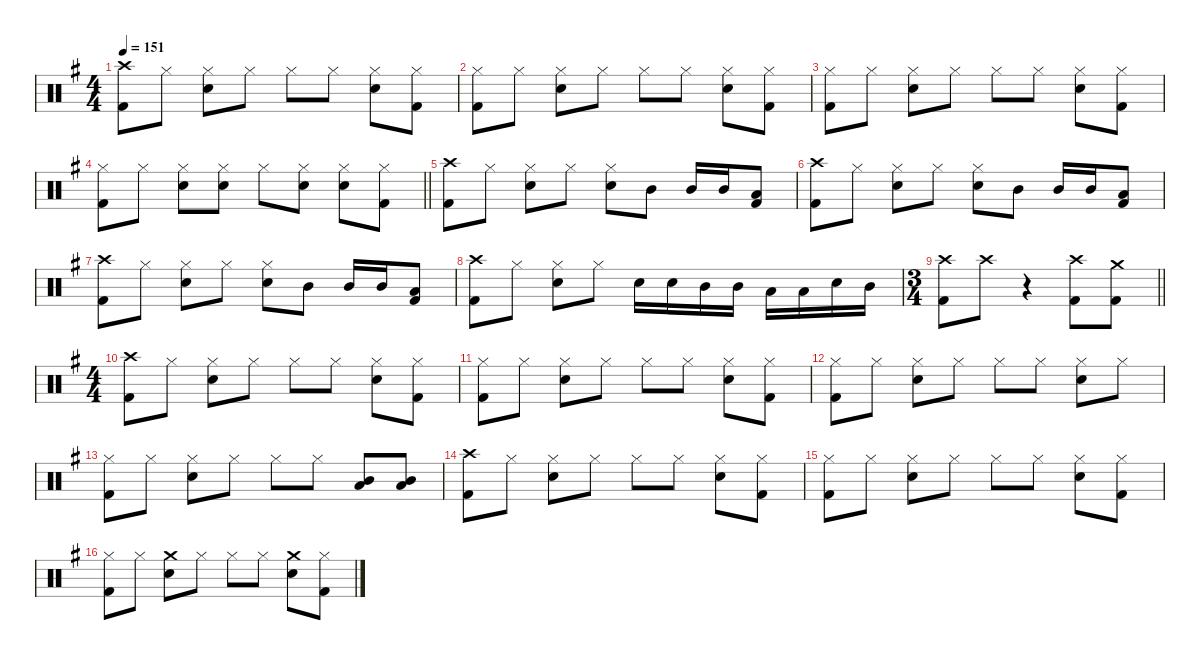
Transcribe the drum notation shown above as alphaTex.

\defaultSystemsLayout 4
\hideDynamics
\bracketExtendMode nobrackets
\singleTrackTrackNamePolicy hidden
\multiTrackTrackNamePolicy hidden
\otherSystemsTrackNameOrientation horizontal
\track ("Lars Ulrich" "drm.") {instrument percussion}
\staff {score}
\articulation defaults
\ts (4 4)
\tempo 151
\clef neutral
\ks eminor
("Crash high (hit)"{acc forcenatural} "Kick (hit) 2"{acc forcenatural}).8{dy f beam Down} "Hi-Hat (closed)"{acc forcenatural}.8{beam Down} ("Hi-Hat (closed)"{acc forcenatural} "Snare (hit) 2"{acc forcenatural}).8{beam Down} "Hi-Hat (closed)"{acc forcenatural}.8{beam Down} "Hi-Hat (closed)"{acc forcenatural}.8{beam Down} "Hi-Hat (closed)"{acc forcenatural}.8{beam Down} ("Hi-Hat (closed)"{acc forcenatural} "Snare (hit) 2"{acc forcenatural}).8{beam Down} ("Hi-Hat (closed)"{acc forcenatural} "Kick (hit) 2"{acc forcenatural}).8{beam Down} |
("Hi-Hat (closed)"{acc forcenatural} "Kick (hit) 2"{acc forcenatural}).8{beam Down} "Hi-Hat (closed)"{acc forcenatural}.8{beam Down} ("Hi-Hat (closed)"{acc forcenatural} "Snare (hit) 2"{acc forcenatural}).8{beam Down} "Hi-Hat (closed)"{acc forcenatural}.8{beam Down} "Hi-Hat (closed)"{acc forcenatural}.8{beam Down} "Hi-Hat (closed)"{acc forcenatural}.8{beam Down} ("Hi-Hat (closed)"{acc forcenatural} "Snare (hit) 2"{acc forcenatural}).8{beam Down} ("Hi-Hat (closed)"{acc forcenatural} "Kick (hit) 2"{acc forcenatural}).8{beam Down} |
("Hi-Hat (closed)"{acc forcenatural} "Kick (hit) 2"{acc forcenatural}).8{beam Down} "Hi-Hat (closed)"{acc forcenatural}.8{beam Down} ("Hi-Hat (closed)"{acc forcenatural} "Snare (hit) 2"{acc forcenatural}).8{beam Down} "Hi-Hat (closed)"{acc forcenatural}.8{beam Down} "Hi-Hat (closed)"{acc forcenatural}.8{beam Down} "Hi-Hat (closed)"{acc forcenatural}.8{beam Down} ("Hi-Hat (closed)"{acc forcenatural} "Snare (hit) 2"{acc forcenatural}).8{beam Down} ("Hi-Hat (closed)"{acc forcenatural} "Kick (hit) 2"{acc forcenatural}).8{beam Down} |
\barLineRight lightlight
("Hi-Hat (closed)"{acc forcenatural} "Kick (hit) 2"{acc forcenatural}).8{beam Down} "Hi-Hat (closed)"{acc forcenatural}.8{beam Down} ("Hi-Hat (closed)"{acc forcenatural} "Snare (hit) 2"{acc forcenatural}).8{beam Down} ("Hi-Hat (closed)"{acc forcenatural} "Snare (hit) 2"{acc forcenatural}).8{beam Down} "Hi-Hat (closed)"{acc forcenatural}.8{beam Down} ("Hi-Hat (closed)"{acc forcenatural} "Snare (hit) 2"{acc forcenatural}).8{beam Down} ("Hi-Hat (closed)"{acc forcenatural} "Snare (hit) 2"{acc forcenatural}).8{beam Down} ("Hi-Hat (closed)"{acc forcenatural} "Kick (hit) 2"{acc forcenatural}).8{beam Down} |
("Crash high (hit)"{acc forcenatural} "Kick (hit) 2"{acc forcenatural}).8{beam Down} "Hi-Hat (closed)"{acc forcenatural}.8{beam Down} ("Hi-Hat (closed)"{acc forcenatural} "Snare (hit) 2"{acc forcenatural}).8{beam Down} "Hi-Hat (closed)"{acc forcenatural}.8{beam Down} ("Hi-Hat (closed)"{acc forcenatural} "Snare (hit) 2"{acc forcenatural}).8{beam Down} "Mid Tom (hit)"{acc forcenatural}.8{beam Down} "Mid Tom (hit)"{acc forcenatural}.16{beam Up} "Mid Tom (hit)"{acc forcenatural}.16{beam Up} ("Low Tom (hit)"{acc forcenatural} "Kick (hit) 2"{acc forcenatural}).8{beam Up} |
("Crash high (hit)"{acc forcenatural} "Kick (hit) 2"{acc forcenatural}).8{beam Down} "Hi-Hat (closed)"{acc forcenatural}.8{beam Down} ("Hi-Hat (closed)"{acc forcenatural} "Snare (hit) 2"{acc forcenatural}).8{beam Down} "Hi-Hat (closed)"{acc forcenatural}.8{beam Down} ("Hi-Hat (closed)"{acc forcenatural} "Snare (hit) 2"{acc forcenatural}).8{beam Down} "Mid Tom (hit)"{acc forcenatural}.8{beam Down} "Mid Tom (hit)"{acc forcenatural}.16{beam Up} "Mid Tom (hit)"{acc forcenatural}.16{beam Up} ("Low Tom (hit)"{acc forcenatural} "Kick (hit) 2"{acc forcenatural}).8{beam Up} |
("Crash high (hit)"{acc forcenatural} "Kick (hit) 2"{acc forcenatural}).8{beam Down} "Hi-Hat (closed)"{acc forcenatural}.8{beam Down} ("Hi-Hat (closed)"{acc forcenatural} "Snare (hit) 2"{acc forcenatural}).8{beam Down} "Hi-Hat (closed)"{acc forcenatural}.8{beam Down} ("Hi-Hat (closed)"{acc forcenatural} "Snare (hit) 2"{acc forcenatural}).8{beam Down} "Mid Tom (hit)"{acc forcenatural}.8{beam Down} "Mid Tom (hit)"{acc forcenatural}.16{beam Up} "Mid Tom (hit)"{acc forcenatural}.16{beam Up} ("Low Tom (hit)"{acc forcenatural} "Kick (hit) 2"{acc forcenatural}).8{beam Up} |
("Crash high (hit)"{acc forcenatural} "Kick (hit) 2"{acc forcenatural}).8{beam Down} "Hi-Hat (closed)"{acc forcenatural}.8{beam Down} ("Hi-Hat (closed)"{acc forcenatural} "Snare (hit) 2"{acc forcenatural}).8{beam Down} "Hi-Hat (closed)"{acc forcenatural}.8{beam Down} "Snare (hit) 2"{acc forcenatural}.16{beam Down} "Snare (hit) 2"{acc forcenatural}.16{beam Down} "Mid Tom (hit)"{acc forcenatural}.16{beam Down} "Mid Tom (hit)"{acc forcenatural}.16{beam Down} "Low Tom (hit)"{acc forcenatural}.16{beam Down} "Low Tom (hit)"{acc forcenatural}.16{beam Down} "Snare (hit) 2"{acc forcenatural}.16{beam Down} "Mid Tom (hit)"{acc forcenatural}.16{beam Down} |
\ts (3 4)
\beaming (8 2 2 2)
\barLineRight lightlight
("Crash high (hit)"{acc forcenatural} "Kick (hit) 2"{acc forcenatural}).8{beam Down} "Crash high (hit)"{acc forcenatural}.8{beam Down} r.4{beam Down} ("Crash high (hit)"{acc forcenatural} "Kick (hit) 2"{acc forcenatural}).8{beam Down} ("Crash medium (hit)"{acc forcenatural} "Kick (hit) 2"{acc forcenatural}).8{beam Down} |
\ts (4 4)
\beaming (8 2 2 2 2)
("Crash high (hit)"{acc forcenatural} "Kick (hit) 2"{acc forcenatural}).8{beam Down} "Hi-Hat (closed)"{acc forcenatural}.8{beam Down} ("Hi-Hat (closed)"{acc forcenatural} "Snare (hit) 2"{acc forcenatural}).8{beam Down} "Hi-Hat (closed)"{acc forcenatural}.8{beam Down} "Hi-Hat (closed)"{acc forcenatural}.8{beam Down} "Hi-Hat (closed)"{acc forcenatural}.8{beam Down} ("Hi-Hat (closed)"{acc forcenatural} "Snare (hit) 2"{acc forcenatural}).8{beam Down} ("Hi-Hat (closed)"{acc forcenatural} "Kick (hit) 2"{acc forcenatural}).8{beam Down} |
("Hi-Hat (closed)"{acc forcenatural} "Kick (hit) 2"{acc forcenatural}).8{beam Down} "Hi-Hat (closed)"{acc forcenatural}.8{beam Down} ("Hi-Hat (closed)"{acc forcenatural} "Snare (hit) 2"{acc forcenatural}).8{beam Down} "Hi-Hat (closed)"{acc forcenatural}.8{beam Down} "Hi-Hat (closed)"{acc forcenatural}.8{beam Down} "Hi-Hat (closed)"{acc forcenatural}.8{beam Down} ("Hi-Hat (closed)"{acc forcenatural} "Snare (hit) 2"{acc forcenatural}).8{beam Down} ("Hi-Hat (closed)"{acc forcenatural} "Kick (hit) 2"{acc forcenatural}).8{beam Down} |
("Hi-Hat (closed)"{acc forcenatural} "Kick (hit) 2"{acc forcenatural}).8{beam Down} "Hi-Hat (closed)"{acc forcenatural}.8{beam Down} ("Hi-Hat (closed)"{acc forcenatural} "Snare (hit) 2"{acc forcenatural}).8{beam Down} "Hi-Hat (closed)"{acc forcenatural}.8{beam Down} "Hi-Hat (closed)"{acc forcenatural}.8{beam Down} "Hi-Hat (closed)"{acc forcenatural}.8{beam Down} ("Hi-Hat (closed)"{acc forcenatural} "Snare (hit) 2"{acc forcenatural}).8{beam Down} "Hi-Hat (closed)"{acc forcenatural}.8{beam Down} |
("Hi-Hat (closed)"{acc forcenatural} "Kick (hit) 2"{acc forcenatural}).8{beam Down} "Hi-Hat (closed)"{acc forcenatural}.8{beam Down} ("Hi-Hat (closed)"{acc forcenatural} "Snare (hit) 2"{acc forcenatural}).8{beam Down} "Hi-Hat (closed)"{acc forcenatural}.8{beam Down} "Hi-Hat (closed)"{acc forcenatural}.8{beam Down} "Hi-Hat (closed)"{acc forcenatural}.8{beam Down} ("Low Tom (hit)"{acc forcenatural} "Mid Tom (hit)"{acc forcenatural}).8{beam Up} ("Low Tom (hit)"{acc forcenatural} "Mid Tom (hit)"{acc forcenatural}).8{beam Up} |
("Crash high (hit)"{acc forcenatural} "Kick (hit) 2"{acc forcenatural}).8{beam Down} "Hi-Hat (closed)"{acc forcenatural}.8{beam Down} ("Hi-Hat (closed)"{acc forcenatural} "Snare (hit) 2"{acc forcenatural}).8{beam Down} "Hi-Hat (closed)"{acc forcenatural}.8{beam Down} "Hi-Hat (closed)"{acc forcenatural}.8{beam Down} "Hi-Hat (closed)"{acc forcenatural}.8{beam Down} ("Hi-Hat (closed)"{acc forcenatural} "Snare (hit) 2"{acc forcenatural}).8{beam Down} ("Hi-Hat (closed)"{acc forcenatural} "Kick (hit) 2"{acc forcenatural}).8{beam Down} |
("Hi-Hat (closed)"{acc forcenatural} "Kick (hit) 2"{acc forcenatural}).8{beam Down} "Hi-Hat (closed)"{acc forcenatural}.8{beam Down} ("Hi-Hat (closed)"{acc forcenatural} "Snare (hit) 2"{acc forcenatural}).8{beam Down} "Hi-Hat (closed)"{acc forcenatural}.8{beam Down} "Hi-Hat (closed)"{acc forcenatural}.8{beam Down} "Hi-Hat (closed)"{acc forcenatural}.8{beam Down} ("Hi-Hat (closed)"{acc forcenatural} "Snare (hit) 2"{acc forcenatural}).8{beam Down} ("Hi-Hat (closed)"{acc forcenatural} "Kick (hit) 2"{acc forcenatural}).8{beam Down} |
("Hi-Hat (closed)"{acc forcenatural} "Kick (hit) 2"{acc forcenatural}).8{beam Down} "Hi-Hat (closed)"{acc forcenatural}.8{beam Down} ("Crash medium (hit)"{acc forcenatural} "Snare (hit) 2"{acc forcenatural}).8{beam Down} "Hi-Hat (closed)"{acc forcenatural}.8{beam Down} "Hi-Hat (closed)"{acc forcenatural}.8{beam Down} "Hi-Hat (closed)"{acc forcenatural}.8{beam Down} ("Crash medium (hit)"{acc forcenatural} "Snare (hit) 2"{acc forcenatural}).8{beam Down} ("Hi-Hat (closed)"{acc forcenatural} "Kick (hit) 2"{acc forcenatural}).8{beam Down}
